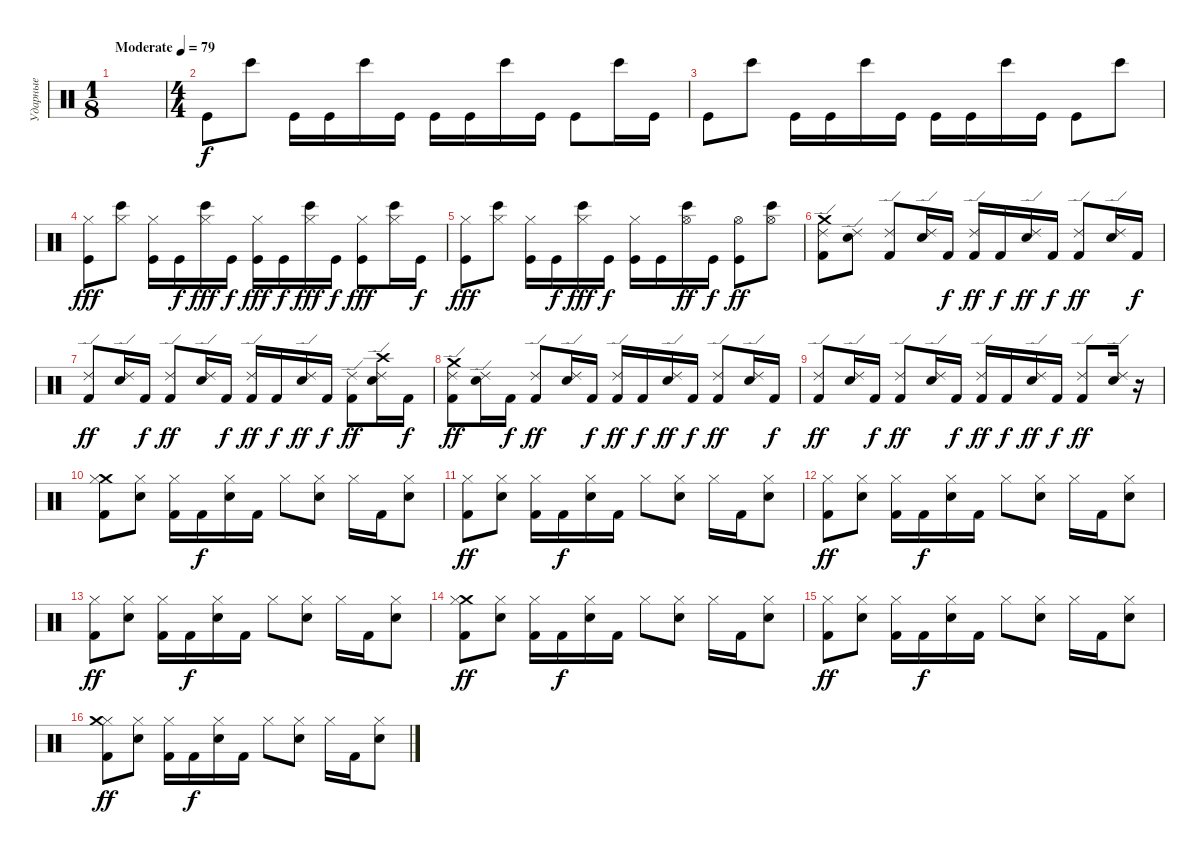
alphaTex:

\track ("Ударные" "Ударные") {instrument percussion}
\staff {score}
\articulation defaults
\ts (1 8)
\tempo (79 "Moderate")
\clef neutral
\ks c
|
\ts (4 4)
"Kick (hit)".8 "Bongo High (hit)".8 "Kick (hit)".16 "Kick (hit)".16 "Bongo High (hit)".16 "Kick (hit)".16 "Kick (hit)".16 "Kick (hit)".16 "Bongo High (hit)".16 "Kick (hit)".16 "Kick (hit)".8 "Bongo High (hit)".16 "Kick (hit)".16 |
"Kick (hit)".8 "Bongo High (hit)".8 "Kick (hit)".16 "Kick (hit)".16 "Bongo High (hit)".16 "Kick (hit)".16 "Kick (hit)".16 "Kick (hit)".16 "Bongo High (hit)".16 "Kick (hit)".16 "Kick (hit)".8 "Bongo High (hit)".8 |
("Kick (hit)" "Hi-Hat (closed)").8{dy fff} ("Bongo High (hit)" "Hi-Hat (closed)").8 ("Kick (hit)" "Hi-Hat (closed)").16 "Kick (hit)".16{dy f} ("Bongo High (hit)" "Hi-Hat (closed)").16{dy fff} "Kick (hit)".16{dy f} ("Kick (hit)" "Hi-Hat (closed)").16{dy fff} "Kick (hit)".16{dy f} ("Bongo High (hit)" "Hi-Hat (closed)").16{dy fff} "Kick (hit)".16{dy f} ("Kick (hit)" "Hi-Hat (closed)").8{dy fff} ("Bongo High (hit)" "Hi-Hat (closed)").16 "Kick (hit)".16{dy f} |
("Kick (hit)" "Hi-Hat (closed)").8{dy fff} ("Bongo High (hit)" "Hi-Hat (closed)").8 ("Kick (hit)" "Hi-Hat (closed)").16 "Kick (hit)".16{dy f} ("Bongo High (hit)" "Hi-Hat (closed)").16{dy fff} "Kick (hit)".16{dy f} ("Kick (hit)" "Hi-Hat (closed)").16 "Kick (hit)".16 ("Bongo High (hit)" "Hi-Hat (open)").16{dy ff} "Kick (hit)".16{dy f} ("Kick (hit)" "Hi-Hat (open)").8{dy ff} ("Bongo High (hit)" "Hi-Hat (open)").8 |
("Kick (hit) 2" "Ride (edge) 2" "Crash medium (hit)").8 ("Snare (hit) 2" "Ride (edge) 2").8 ("Kick (hit) 2" "Ride (edge) 2").8 ("Snare (hit) 2" "Ride (edge) 2").16 "Kick (hit) 2".16{dy f} ("Kick (hit) 2" "Ride (edge) 2").16{dy ff} "Kick (hit) 2".16{dy f} ("Snare (hit) 2" "Ride (edge) 2").16{dy ff} "Kick (hit) 2".16{dy f} ("Kick (hit) 2" "Ride (edge) 2").8{dy ff} ("Snare (hit) 2" "Ride (edge) 2").16 "Kick (hit) 2".16{dy f} |
("Kick (hit) 2" "Ride (edge) 2").8{dy ff} ("Snare (hit) 2" "Ride (edge) 2").16 "Kick (hit) 2".16{dy f} ("Kick (hit) 2" "Ride (edge) 2").8{dy ff} ("Snare (hit) 2" "Ride (edge) 2").16 "Kick (hit) 2".16{dy f} ("Kick (hit) 2" "Ride (edge) 2").16{dy ff} "Kick (hit) 2".16{dy f} ("Snare (hit) 2" "Ride (edge) 2").16{dy ff} "Kick (hit) 2".16{dy f} ("Kick (hit) 2" "Ride (edge) 2").8{dy ff} ("Snare (hit) 2" "Ride (edge) 2" "Crash high (hit)").16 "Kick (hit) 2".16{dy f} |
("Kick (hit) 2" "Ride (edge) 2" "Crash medium (hit)").8{dy ff} ("Snare (hit) 2" "Ride (edge) 2").16 "Kick (hit) 2".16{dy f} ("Kick (hit) 2" "Ride (edge) 2").8{dy ff} ("Snare (hit) 2" "Ride (edge) 2").16 "Kick (hit) 2".16{dy f} ("Kick (hit) 2" "Ride (edge) 2").16{dy ff} "Kick (hit) 2".16{dy f} ("Snare (hit) 2" "Ride (edge) 2").16{dy ff} "Kick (hit) 2".16{dy f} ("Kick (hit) 2" "Ride (edge) 2").8{dy ff} ("Snare (hit) 2" "Ride (edge) 2").16 "Kick (hit) 2".16{dy f} |
("Kick (hit) 2" "Ride (edge) 2").8{dy ff} ("Snare (hit) 2" "Ride (edge) 2").16 "Kick (hit) 2".16{dy f} ("Kick (hit) 2" "Ride (edge) 2").8{dy ff} ("Snare (hit) 2" "Ride (edge) 2").16 "Kick (hit) 2".16{dy f} ("Kick (hit) 2" "Ride (edge) 2").16{dy ff} "Kick (hit) 2".16{dy f} ("Snare (hit) 2" "Ride (edge) 2").16{dy ff} "Kick (hit) 2".16{dy f} ("Kick (hit) 2" "Ride (edge) 2").8{dy ff} ("Snare (hit) 2" "Ride (edge) 2").16 r.16 |
("Kick (hit) 2" "Crash medium (hit)" "Hi-Hat (closed)").8 ("Electric Snare (hit)" "Hi-Hat (closed)").8 ("Kick (hit) 2" "Hi-Hat (closed)").16 "Kick (hit) 2".16{dy f} ("Electric Snare (hit)" "Hi-Hat (closed)").16 "Kick (hit) 2".16 "Hi-Hat (closed)".8 ("Electric Snare (hit)" "Hi-Hat (closed)").8 "Hi-Hat (closed)".16 "Kick (hit) 2".16 ("Hi-Hat (closed)" "Electric Snare (hit)").8 |
("Kick (hit) 2" "Hi-Hat (closed)").8{dy ff} ("Electric Snare (hit)" "Hi-Hat (closed)").8 ("Kick (hit) 2" "Hi-Hat (closed)").16 "Kick (hit) 2".16{dy f} ("Electric Snare (hit)" "Hi-Hat (closed)").16 "Kick (hit) 2".16 "Hi-Hat (closed)".8 ("Electric Snare (hit)" "Hi-Hat (closed)").8 "Hi-Hat (closed)".16 "Kick (hit) 2".16 ("Hi-Hat (closed)" "Electric Snare (hit)").8 |
("Kick (hit) 2" "Hi-Hat (closed)").8{dy ff} ("Electric Snare (hit)" "Hi-Hat (closed)").8 ("Kick (hit) 2" "Hi-Hat (closed)").16 "Kick (hit) 2".16{dy f} ("Electric Snare (hit)" "Hi-Hat (closed)").16 "Kick (hit) 2".16 "Hi-Hat (closed)".8 ("Electric Snare (hit)" "Hi-Hat (closed)").8 "Hi-Hat (closed)".16 "Kick (hit) 2".16 ("Hi-Hat (closed)" "Electric Snare (hit)").8 |
("Kick (hit) 2" "Hi-Hat (closed)").8{dy ff} ("Electric Snare (hit)" "Hi-Hat (closed)").8 ("Kick (hit) 2" "Hi-Hat (closed)").16 "Kick (hit) 2".16{dy f} ("Electric Snare (hit)" "Hi-Hat (closed)").16 "Kick (hit) 2".16 "Hi-Hat (closed)".8 ("Electric Snare (hit)" "Hi-Hat (closed)").8 "Hi-Hat (closed)".16 "Kick (hit) 2".16 ("Hi-Hat (closed)" "Electric Snare (hit)").8 |
("Kick (hit) 2" "Crash medium (hit)" "Hi-Hat (closed)").8{dy ff} ("Electric Snare (hit)" "Hi-Hat (closed)").8 ("Kick (hit) 2" "Hi-Hat (closed)").16 "Kick (hit) 2".16{dy f} ("Electric Snare (hit)" "Hi-Hat (closed)").16 "Kick (hit) 2".16 "Hi-Hat (closed)".8 ("Electric Snare (hit)" "Hi-Hat (closed)").8 "Hi-Hat (closed)".16 "Kick (hit) 2".16 ("Hi-Hat (closed)" "Electric Snare (hit)").8 |
("Kick (hit) 2" "Hi-Hat (closed)").8{dy ff} ("Electric Snare (hit)" "Hi-Hat (closed)").8 ("Kick (hit) 2" "Hi-Hat (closed)").16 "Kick (hit) 2".16{dy f} ("Electric Snare (hit)" "Hi-Hat (closed)").16 "Kick (hit) 2".16 "Hi-Hat (closed)".8 ("Electric Snare (hit)" "Hi-Hat (closed)").8 "Hi-Hat (closed)".16 "Kick (hit) 2".16 ("Hi-Hat (closed)" "Electric Snare (hit)").8 |
("Kick (hit) 2" "Hi-Hat (closed)" "Crash medium (hit)").8{dy ff} ("Electric Snare (hit)" "Hi-Hat (closed)").8 ("Kick (hit) 2" "Hi-Hat (closed)").16 "Kick (hit) 2".16{dy f} ("Electric Snare (hit)" "Hi-Hat (closed)").16 "Kick (hit) 2".16 "Hi-Hat (closed)".8 ("Electric Snare (hit)" "Hi-Hat (closed)").8 "Hi-Hat (closed)".16 "Kick (hit) 2".16 ("Hi-Hat (closed)" "Electric Snare (hit)").8
